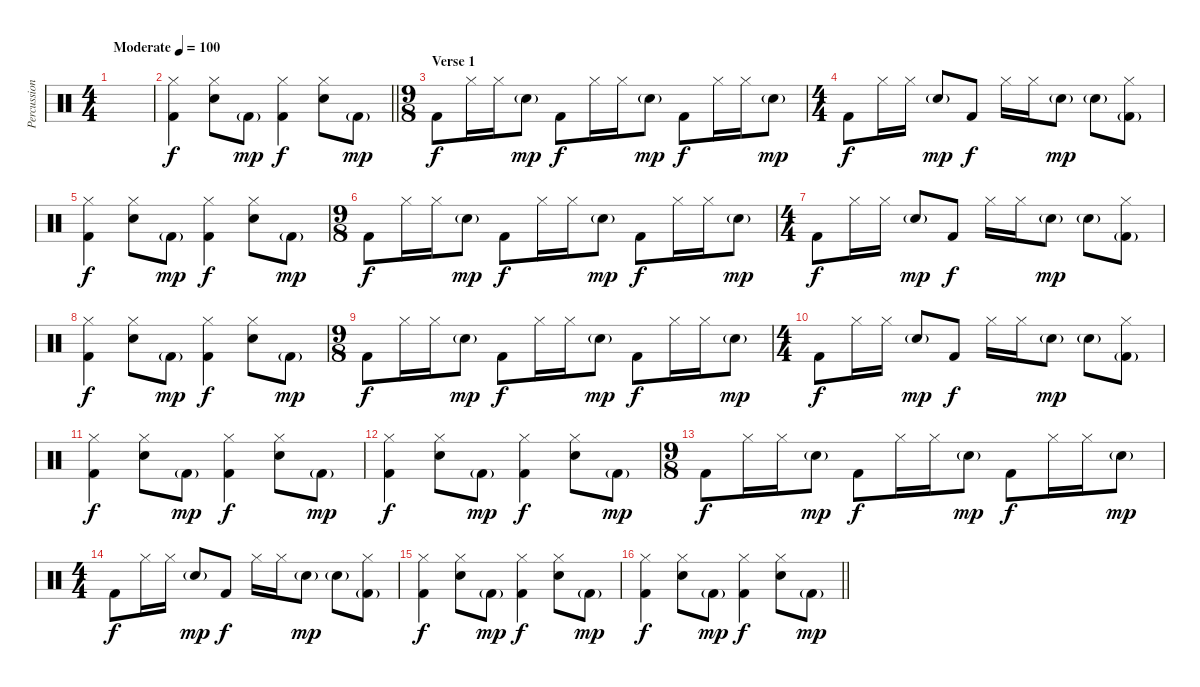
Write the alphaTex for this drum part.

\track ("Percussion" "Percussion") {instrument percussion}
\staff {score}
\articulation defaults
\ts (4 4)
\tempo (100 "Moderate")
\clef neutral
\ks c
|
\barLineRight lightlight
("Hi-Hat (closed)" "Kick (hit) 2").4 ("Hi-Hat (closed)" "Snare (hit) 2").8 "Kick (hit) 2"{g}.8{dy mp} ("Hi-Hat (closed)" "Kick (hit) 2").4{dy f} ("Hi-Hat (closed)" "Snare (hit) 2").8 "Kick (hit) 2"{g}.8{dy mp} |
\ts (9 8)
\section ("" "Verse 1")
"Kick (hit) 2".8{dy f} "Hi-Hat (closed)".16 "Hi-Hat (closed)".16 "Snare (hit) 2"{g}.8{dy mp} "Kick (hit) 2".8{dy f} "Hi-Hat (closed)".16 "Hi-Hat (closed)".16 "Snare (hit) 2"{g}.8{dy mp} "Kick (hit) 2".8{dy f} "Hi-Hat (closed)".16 "Hi-Hat (closed)".16 "Snare (hit) 2"{g}.8{dy mp} |
\ts (4 4)
"Kick (hit) 2".8{dy f} "Hi-Hat (closed)".16 "Hi-Hat (closed)".16 "Snare (hit) 2"{g}.8{dy mp} "Kick (hit) 2".8{dy f} "Hi-Hat (closed)".16 "Hi-Hat (closed)".16 "Snare (hit) 2"{g}.8{dy mp} "Snare (hit) 2"{g}.8 ("Hi-Hat (closed)" "Kick (hit) 2"{g}).8 |
("Hi-Hat (closed)" "Kick (hit) 2").4{dy f} ("Hi-Hat (closed)" "Snare (hit) 2").8 "Kick (hit) 2"{g}.8{dy mp} ("Hi-Hat (closed)" "Kick (hit) 2").4{dy f} ("Hi-Hat (closed)" "Snare (hit) 2").8 "Kick (hit) 2"{g}.8{dy mp} |
\ts (9 8)
"Kick (hit) 2".8{dy f} "Hi-Hat (closed)".16 "Hi-Hat (closed)".16 "Snare (hit) 2"{g}.8{dy mp} "Kick (hit) 2".8{dy f} "Hi-Hat (closed)".16 "Hi-Hat (closed)".16 "Snare (hit) 2"{g}.8{dy mp} "Kick (hit) 2".8{dy f} "Hi-Hat (closed)".16 "Hi-Hat (closed)".16 "Snare (hit) 2"{g}.8{dy mp} |
\ts (4 4)
"Kick (hit) 2".8{dy f} "Hi-Hat (closed)".16 "Hi-Hat (closed)".16 "Snare (hit) 2"{g}.8{dy mp} "Kick (hit) 2".8{dy f} "Hi-Hat (closed)".16 "Hi-Hat (closed)".16 "Snare (hit) 2"{g}.8{dy mp} "Snare (hit) 2"{g}.8 ("Hi-Hat (closed)" "Kick (hit) 2"{g}).8 |
("Hi-Hat (closed)" "Kick (hit) 2").4{dy f} ("Hi-Hat (closed)" "Snare (hit) 2").8 "Kick (hit) 2"{g}.8{dy mp} ("Hi-Hat (closed)" "Kick (hit) 2").4{dy f} ("Hi-Hat (closed)" "Snare (hit) 2").8 "Kick (hit) 2"{g}.8{dy mp} |
\ts (9 8)
"Kick (hit) 2".8{dy f} "Hi-Hat (closed)".16 "Hi-Hat (closed)".16 "Snare (hit) 2"{g}.8{dy mp} "Kick (hit) 2".8{dy f} "Hi-Hat (closed)".16 "Hi-Hat (closed)".16 "Snare (hit) 2"{g}.8{dy mp} "Kick (hit) 2".8{dy f} "Hi-Hat (closed)".16 "Hi-Hat (closed)".16 "Snare (hit) 2"{g}.8{dy mp} |
\ts (4 4)
"Kick (hit) 2".8{dy f} "Hi-Hat (closed)".16 "Hi-Hat (closed)".16 "Snare (hit) 2"{g}.8{dy mp} "Kick (hit) 2".8{dy f} "Hi-Hat (closed)".16 "Hi-Hat (closed)".16 "Snare (hit) 2"{g}.8{dy mp} "Snare (hit) 2"{g}.8 ("Hi-Hat (closed)" "Kick (hit) 2"{g}).8 |
("Hi-Hat (closed)" "Kick (hit) 2").4{dy f} ("Hi-Hat (closed)" "Snare (hit) 2").8 "Kick (hit) 2"{g}.8{dy mp} ("Hi-Hat (closed)" "Kick (hit) 2").4{dy f} ("Hi-Hat (closed)" "Snare (hit) 2").8 "Kick (hit) 2"{g}.8{dy mp} |
("Hi-Hat (closed)" "Kick (hit) 2").4{dy f} ("Hi-Hat (closed)" "Snare (hit) 2").8 "Kick (hit) 2"{g}.8{dy mp} ("Hi-Hat (closed)" "Kick (hit) 2").4{dy f} ("Hi-Hat (closed)" "Snare (hit) 2").8 "Kick (hit) 2"{g}.8{dy mp} |
\ts (9 8)
"Kick (hit) 2".8{dy f} "Hi-Hat (closed)".16 "Hi-Hat (closed)".16 "Snare (hit) 2"{g}.8{dy mp} "Kick (hit) 2".8{dy f} "Hi-Hat (closed)".16 "Hi-Hat (closed)".16 "Snare (hit) 2"{g}.8{dy mp} "Kick (hit) 2".8{dy f} "Hi-Hat (closed)".16 "Hi-Hat (closed)".16 "Snare (hit) 2"{g}.8{dy mp} |
\ts (4 4)
"Kick (hit) 2".8{dy f} "Hi-Hat (closed)".16 "Hi-Hat (closed)".16 "Snare (hit) 2"{g}.8{dy mp} "Kick (hit) 2".8{dy f} "Hi-Hat (closed)".16 "Hi-Hat (closed)".16 "Snare (hit) 2"{g}.8{dy mp} "Snare (hit) 2"{g}.8 ("Hi-Hat (closed)" "Kick (hit) 2"{g}).8 |
("Hi-Hat (closed)" "Kick (hit) 2").4{dy f} ("Hi-Hat (closed)" "Snare (hit) 2").8 "Kick (hit) 2"{g}.8{dy mp} ("Hi-Hat (closed)" "Kick (hit) 2").4{dy f} ("Hi-Hat (closed)" "Snare (hit) 2").8 "Kick (hit) 2"{g}.8{dy mp} |
\barLineRight lightlight
("Hi-Hat (closed)" "Kick (hit) 2").4{dy f} ("Hi-Hat (closed)" "Snare (hit) 2").8 "Kick (hit) 2"{g}.8{dy mp} ("Hi-Hat (closed)" "Kick (hit) 2").4{dy f} ("Hi-Hat (closed)" "Snare (hit) 2").8 "Kick (hit) 2"{g}.8{dy mp}
